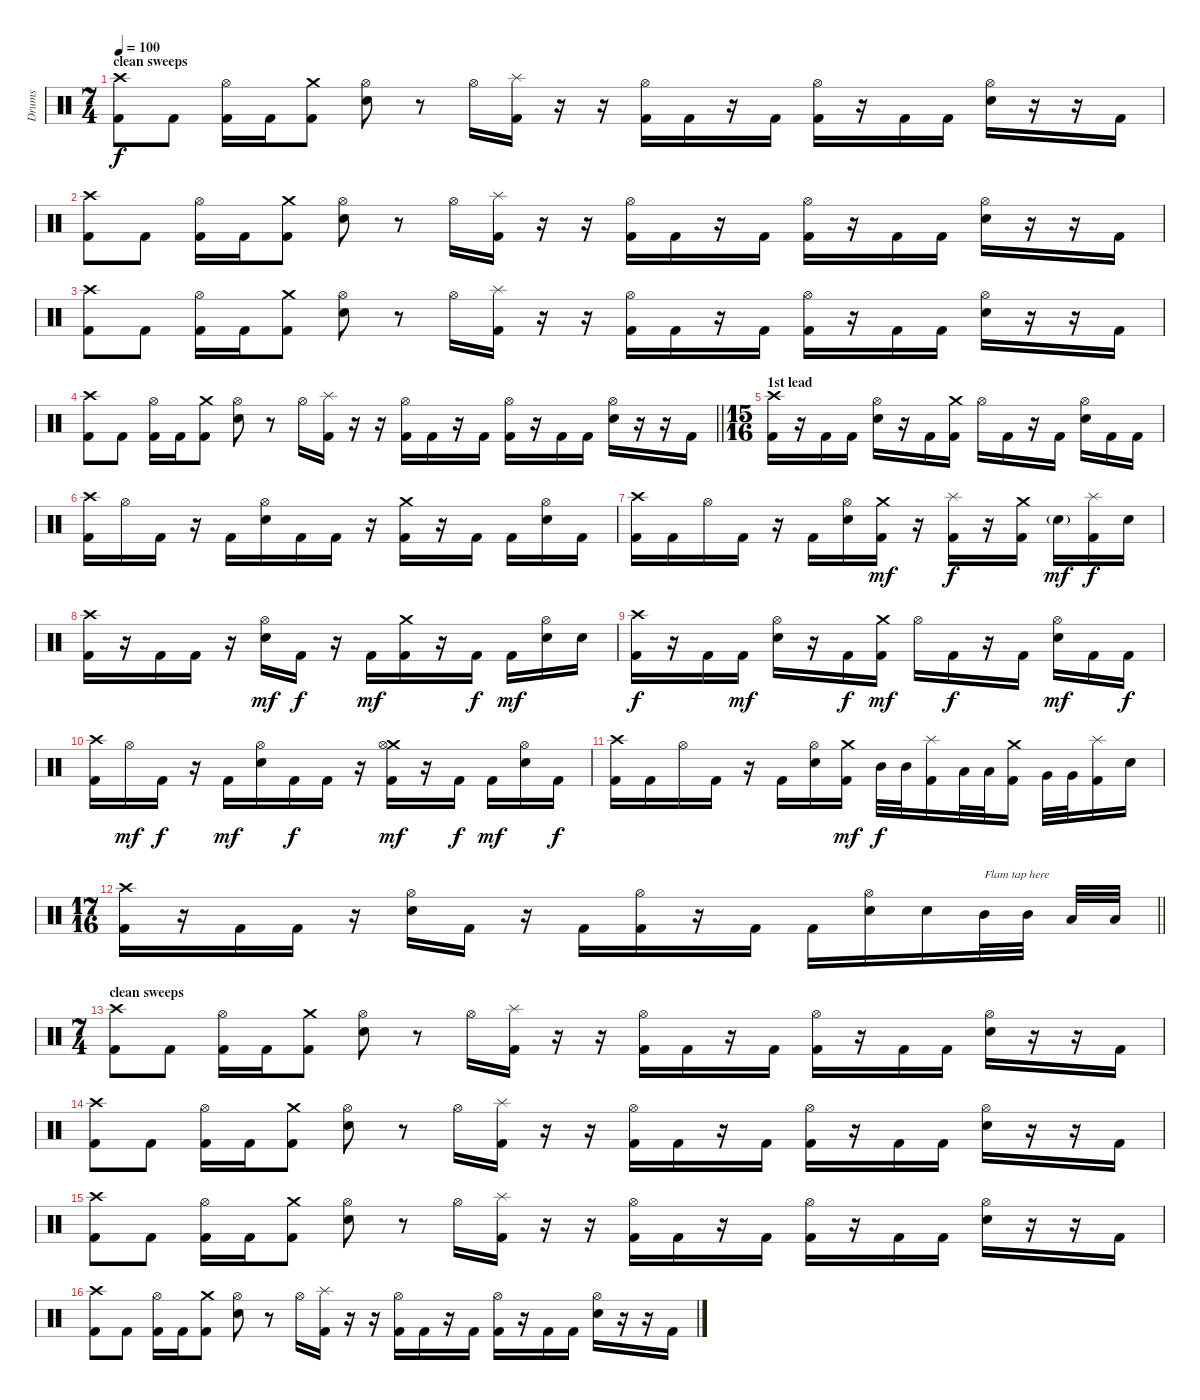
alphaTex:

\track ("Drums" "Drums") {instrument percussion}
\staff {score}
\articulation defaults
\ts (7 4)
\section ("" "clean sweeps")
\tempo 100
\clef neutral
\ks c
("Crash high (hit)" "Kick (hit) 2").8{dy f} "Kick (hit) 2".8 ("Hi-Hat (open)" "Kick (hit) 2").16 "Kick (hit) 2".16 ("Crash medium (hit)" "Kick (hit) 2").8 ("Hi-Hat (open)" "Electric Snare (hit)").8 r.8 "Hi-Hat (open)".16 ("Splash (hit)" "Kick (hit) 2").16 r.16 r.16 ("Hi-Hat (open)" "Kick (hit) 2").16 "Kick (hit) 2".16 r.16 "Kick (hit) 2".16 ("Hi-Hat (open)" "Kick (hit) 2").16 r.16 "Kick (hit) 2".16 "Kick (hit) 2".16 ("Hi-Hat (open)" "Electric Snare (hit)").16 r.16 r.16 "Kick (hit) 2".16 |
("Crash high (hit)" "Kick (hit) 2").8 "Kick (hit) 2".8 ("Hi-Hat (open)" "Kick (hit) 2").16 "Kick (hit) 2".16 ("Crash medium (hit)" "Kick (hit) 2").8 ("Hi-Hat (open)" "Electric Snare (hit)").8 r.8 "Hi-Hat (open)".16 ("Splash (hit)" "Kick (hit) 2").16 r.16 r.16 ("Hi-Hat (open)" "Kick (hit) 2").16 "Kick (hit) 2".16 r.16 "Kick (hit) 2".16 ("Hi-Hat (open)" "Kick (hit) 2").16 r.16 "Kick (hit) 2".16 "Kick (hit) 2".16 ("Hi-Hat (open)" "Electric Snare (hit)").16 r.16 r.16 "Kick (hit) 2".16 |
("Crash high (hit)" "Kick (hit) 2").8 "Kick (hit) 2".8 ("Hi-Hat (open)" "Kick (hit) 2").16 "Kick (hit) 2".16 ("Crash medium (hit)" "Kick (hit) 2").8 ("Hi-Hat (open)" "Electric Snare (hit)").8 r.8 "Hi-Hat (open)".16 ("Splash (hit)" "Kick (hit) 2").16 r.16 r.16 ("Hi-Hat (open)" "Kick (hit) 2").16 "Kick (hit) 2".16 r.16 "Kick (hit) 2".16 ("Hi-Hat (open)" "Kick (hit) 2").16 r.16 "Kick (hit) 2".16 "Kick (hit) 2".16 ("Hi-Hat (open)" "Electric Snare (hit)").16 r.16 r.16 "Kick (hit) 2".16 |
\barLineRight lightlight
("Crash high (hit)" "Kick (hit) 2").8 "Kick (hit) 2".8 ("Hi-Hat (open)" "Kick (hit) 2").16 "Kick (hit) 2".16 ("Crash medium (hit)" "Kick (hit) 2").8 ("Hi-Hat (open)" "Electric Snare (hit)").8 r.8 "Hi-Hat (open)".16 ("Splash (hit)" "Kick (hit) 2").16 r.16 r.16 ("Hi-Hat (open)" "Kick (hit) 2").16 "Kick (hit) 2".16 r.16 "Kick (hit) 2".16 ("Hi-Hat (open)" "Kick (hit) 2").16 r.16 "Kick (hit) 2".16 "Kick (hit) 2".16 ("Hi-Hat (open)" "Electric Snare (hit)").16 r.16 r.16 "Kick (hit) 2".16 |
\ts (15 16)
\section ("" "1st lead")
("Crash high (hit)" "Kick (hit) 2").16 r.16 "Kick (hit) 2".16 "Kick (hit) 2".16 ("Hi-Hat (open)" "Electric Snare (hit)").16 r.16 "Kick (hit) 2".16 ("Crash medium (hit)" "Kick (hit) 2").16 "Hi-Hat (open)".16 "Kick (hit) 2".16 r.16 "Kick (hit) 2".16 ("Hi-Hat (open)" "Electric Snare (hit)").16 "Kick (hit) 2".16 "Kick (hit) 2".16 |
("Crash high (hit)" "Kick (hit) 2").16 "Hi-Hat (open)".16 "Kick (hit) 2".16 r.16 "Kick (hit) 2".16 ("Hi-Hat (open)" "Electric Snare (hit)").16 "Kick (hit) 2".16 "Kick (hit) 2".16 r.16 ("Crash medium (hit)" "Kick (hit) 2").16 r.16 "Kick (hit) 2".16 "Kick (hit) 2".16 ("Hi-Hat (open)" "Electric Snare (hit)").16 "Kick (hit) 2".16 |
("Crash high (hit)" "Kick (hit) 2").16 "Kick (hit) 2".16 "Hi-Hat (open)".16 "Kick (hit) 2".16 r.16 "Kick (hit) 2".16 ("Hi-Hat (open)" "Electric Snare (hit)").16 ("Crash medium (hit)" "Kick (hit) 2").16{dy mf} r.16 ("Splash (hit)" "Kick (hit) 2").16{dy f} r.16 ("Crash medium (hit)" "Kick (hit) 2").16 "Electric Snare (hit)"{g}.16{dy mf} ("Splash (hit)" "Kick (hit) 2").16{dy f} "Electric Snare (hit)".16 |
("Crash high (hit)" "Kick (hit) 2").16 r.16 "Kick (hit) 2".16 "Kick (hit) 2".16 r.16 ("Hi-Hat (open)" "Electric Snare (hit)").16{dy mf} "Kick (hit) 2".16{dy f} r.16 "Kick (hit) 2".16{dy mf} ("Crash medium (hit)" "Kick (hit) 2").16 r.16 "Kick (hit) 2".16{dy f} "Kick (hit) 2".16{dy mf} ("Hi-Hat (open)" "Electric Snare (hit)").16 "Electric Snare (hit)".16 |
("Crash high (hit)" "Kick (hit) 2").16{dy f} r.16 "Kick (hit) 2".16 "Kick (hit) 2".16{dy mf} ("Hi-Hat (open)" "Electric Snare (hit)").16 r.16 "Kick (hit) 2".16{dy f} ("Crash medium (hit)" "Kick (hit) 2").16{dy mf} "Hi-Hat (open)".16 "Kick (hit) 2".16{dy f} r.16 "Kick (hit) 2".16 ("Hi-Hat (open)" "Electric Snare (hit)").16{dy mf} "Kick (hit) 2".16 "Kick (hit) 2".16{dy f} |
("Crash high (hit)" "Kick (hit) 2").16 "Hi-Hat (open)".16{dy mf} "Kick (hit) 2".16{dy f} r.16 "Kick (hit) 2".16{dy mf} ("Hi-Hat (open)" "Electric Snare (hit)").16 "Kick (hit) 2".16{dy f} "Kick (hit) 2".16 r.16 ("Crash medium (hit)" "Hi-Hat (open)" "Kick (hit) 2").16{dy mf} r.16 "Kick (hit) 2".16{dy f} "Kick (hit) 2".16{dy mf} ("Hi-Hat (open)" "Electric Snare (hit)").16 "Kick (hit) 2".16{dy f} |
("Crash high (hit)" "Kick (hit) 2").16 "Kick (hit) 2".16 "Hi-Hat (open)".16 "Kick (hit) 2".16 r.16 "Kick (hit) 2".16 ("Hi-Hat (open)" "Electric Snare (hit)").16 ("Crash medium (hit)" "Kick (hit) 2").16{dy mf} "Mid Tom (hit)".32{dy f} "Mid Tom (hit)".32 ("Splash (hit)" "Kick (hit) 2").16 "Low Tom (hit)".32 "Low Tom (hit)".32 ("Crash medium (hit)" "Kick (hit) 2").16 "Very Low Tom (hit)".32 "Very Low Tom (hit)".32 ("Splash (hit)" "Kick (hit) 2").16 "Electric Snare (hit)".16 |
\ts (17 16)
\barLineRight lightlight
("Crash high (hit)" "Kick (hit) 2").16 r.16 "Kick (hit) 2".16 "Kick (hit) 2".16 r.16 ("Hi-Hat (open)" "Electric Snare (hit)").16 "Kick (hit) 2".16 r.16 "Kick (hit) 2".16 ("Hi-Hat (open)" "Kick (hit) 2").16 r.16 "Kick (hit) 2".16 "Kick (hit) 2".16 ("Hi-Hat (open)" "Electric Snare (hit)").16 "Electric Snare (hit)".16 "Mid Tom (hit)".32{txt "Flam tap here"} "Mid Tom (hit)".32 "Low Tom (hit)".32 "Low Tom (hit)".32 |
\ts (7 4)
\section ("" "clean sweeps ")
("Crash high (hit)" "Kick (hit) 2").8 "Kick (hit) 2".8 ("Hi-Hat (open)" "Kick (hit) 2").16 "Kick (hit) 2".16 ("Crash medium (hit)" "Kick (hit) 2").8 ("Hi-Hat (open)" "Electric Snare (hit)").8 r.8 "Hi-Hat (open)".16 ("Splash (hit)" "Kick (hit) 2").16 r.16 r.16 ("Hi-Hat (open)" "Kick (hit) 2").16 "Kick (hit) 2".16 r.16 "Kick (hit) 2".16 ("Hi-Hat (open)" "Kick (hit) 2").16 r.16 "Kick (hit) 2".16 "Kick (hit) 2".16 ("Hi-Hat (open)" "Electric Snare (hit)").16 r.16 r.16 "Kick (hit) 2".16 |
("Crash high (hit)" "Kick (hit) 2").8 "Kick (hit) 2".8 ("Hi-Hat (open)" "Kick (hit) 2").16 "Kick (hit) 2".16 ("Crash medium (hit)" "Kick (hit) 2").8 ("Hi-Hat (open)" "Electric Snare (hit)").8 r.8 "Hi-Hat (open)".16 ("Splash (hit)" "Kick (hit) 2").16 r.16 r.16 ("Hi-Hat (open)" "Kick (hit) 2").16 "Kick (hit) 2".16 r.16 "Kick (hit) 2".16 ("Hi-Hat (open)" "Kick (hit) 2").16 r.16 "Kick (hit) 2".16 "Kick (hit) 2".16 ("Hi-Hat (open)" "Electric Snare (hit)").16 r.16 r.16 "Kick (hit) 2".16 |
("Crash high (hit)" "Kick (hit) 2").8 "Kick (hit) 2".8 ("Hi-Hat (open)" "Kick (hit) 2").16 "Kick (hit) 2".16 ("Crash medium (hit)" "Kick (hit) 2").8 ("Hi-Hat (open)" "Electric Snare (hit)").8 r.8 "Hi-Hat (open)".16 ("Splash (hit)" "Kick (hit) 2").16 r.16 r.16 ("Hi-Hat (open)" "Kick (hit) 2").16 "Kick (hit) 2".16 r.16 "Kick (hit) 2".16 ("Hi-Hat (open)" "Kick (hit) 2").16 r.16 "Kick (hit) 2".16 "Kick (hit) 2".16 ("Hi-Hat (open)" "Electric Snare (hit)").16 r.16 r.16 "Kick (hit) 2".16 |
("Crash high (hit)" "Kick (hit) 2").8 "Kick (hit) 2".8 ("Hi-Hat (open)" "Kick (hit) 2").16 "Kick (hit) 2".16 ("Crash medium (hit)" "Kick (hit) 2").8 ("Hi-Hat (open)" "Electric Snare (hit)").8 r.8 "Hi-Hat (open)".16 ("Splash (hit)" "Kick (hit) 2").16 r.16 r.16 ("Hi-Hat (open)" "Kick (hit) 2").16 "Kick (hit) 2".16 r.16 "Kick (hit) 2".16 ("Hi-Hat (open)" "Kick (hit) 2").16 r.16 "Kick (hit) 2".16 "Kick (hit) 2".16 ("Hi-Hat (open)" "Electric Snare (hit)").16 r.16 r.16 "Kick (hit) 2".16
